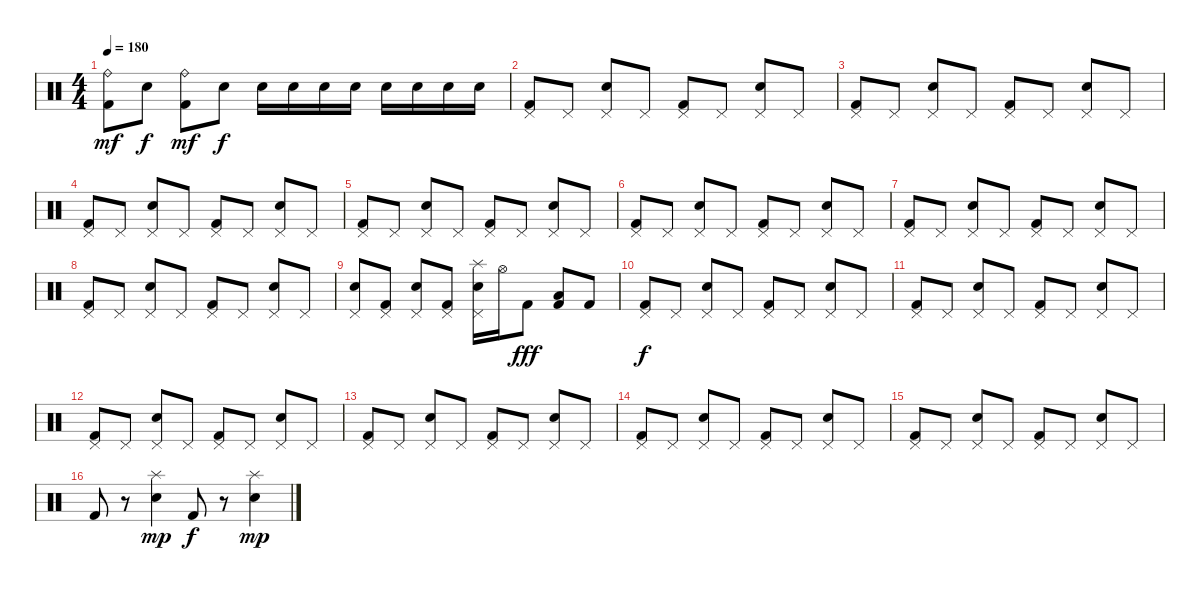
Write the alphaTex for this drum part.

\track "" {instrument percussion}
\staff {score}
\articulation defaults
\ts (4 4)
\tempo 180
\clef neutral
\ks c
("Ride (bell)" "Kick (hit) 2").8{dy mf} "Snare (hit) 2".8{dy f} ("Ride (bell)" "Kick (hit) 2").8{dy mf} "Snare (hit) 2".8{dy f} "Snare (hit) 2".16 "Snare (hit) 2".16 "Snare (hit) 2".16 "Snare (hit) 2".16 "Snare (hit) 2".16 "Snare (hit) 2".16 "Snare (hit) 2".16 "Snare (hit) 2".16 |
("Pedal Hi-Hat (hit)" "Kick (hit) 2").8 "Pedal Hi-Hat (hit)".8 ("Pedal Hi-Hat (hit)" "Snare (hit) 2").8 "Pedal Hi-Hat (hit)".8 ("Pedal Hi-Hat (hit)" "Kick (hit) 2").8 "Pedal Hi-Hat (hit)".8 ("Pedal Hi-Hat (hit)" "Snare (hit) 2").8 "Pedal Hi-Hat (hit)".8 |
("Pedal Hi-Hat (hit)" "Kick (hit) 2").8 "Pedal Hi-Hat (hit)".8 ("Pedal Hi-Hat (hit)" "Snare (hit) 2").8 "Pedal Hi-Hat (hit)".8 ("Pedal Hi-Hat (hit)" "Kick (hit) 2").8 "Pedal Hi-Hat (hit)".8 ("Pedal Hi-Hat (hit)" "Snare (hit) 2").8 "Pedal Hi-Hat (hit)".8 |
("Pedal Hi-Hat (hit)" "Kick (hit) 2").8 "Pedal Hi-Hat (hit)".8 ("Pedal Hi-Hat (hit)" "Snare (hit) 2").8 "Pedal Hi-Hat (hit)".8 ("Pedal Hi-Hat (hit)" "Kick (hit) 2").8 "Pedal Hi-Hat (hit)".8 ("Pedal Hi-Hat (hit)" "Snare (hit) 2").8 "Pedal Hi-Hat (hit)".8 |
("Pedal Hi-Hat (hit)" "Kick (hit) 2").8 "Pedal Hi-Hat (hit)".8 ("Pedal Hi-Hat (hit)" "Snare (hit) 2").8 "Pedal Hi-Hat (hit)".8 ("Pedal Hi-Hat (hit)" "Kick (hit) 2").8 "Pedal Hi-Hat (hit)".8 ("Pedal Hi-Hat (hit)" "Snare (hit) 2").8 "Pedal Hi-Hat (hit)".8 |
("Pedal Hi-Hat (hit)" "Kick (hit) 2").8 "Pedal Hi-Hat (hit)".8 ("Pedal Hi-Hat (hit)" "Snare (hit) 2").8 "Pedal Hi-Hat (hit)".8 ("Pedal Hi-Hat (hit)" "Kick (hit) 2").8 "Pedal Hi-Hat (hit)".8 ("Pedal Hi-Hat (hit)" "Snare (hit) 2").8 "Pedal Hi-Hat (hit)".8 |
("Pedal Hi-Hat (hit)" "Kick (hit) 2").8 "Pedal Hi-Hat (hit)".8 ("Pedal Hi-Hat (hit)" "Snare (hit) 2").8 "Pedal Hi-Hat (hit)".8 ("Pedal Hi-Hat (hit)" "Kick (hit) 2").8 "Pedal Hi-Hat (hit)".8 ("Pedal Hi-Hat (hit)" "Snare (hit) 2").8 "Pedal Hi-Hat (hit)".8 |
("Pedal Hi-Hat (hit)" "Kick (hit) 2").8 "Pedal Hi-Hat (hit)".8 ("Pedal Hi-Hat (hit)" "Snare (hit) 2").8 "Pedal Hi-Hat (hit)".8 ("Pedal Hi-Hat (hit)" "Kick (hit) 2").8 "Pedal Hi-Hat (hit)".8 ("Pedal Hi-Hat (hit)" "Snare (hit) 2").8 "Pedal Hi-Hat (hit)".8 |
("Pedal Hi-Hat (hit)" "Snare (hit) 2").8 ("Pedal Hi-Hat (hit)" "Kick (hit) 2").8 ("Pedal Hi-Hat (hit)" "Snare (hit) 2").8 ("Pedal Hi-Hat (hit)" "Kick (hit) 2").8 ("Splash (hit)" "Pedal Hi-Hat (hit)" "Snare (hit) 2").16 "Hi-Hat (open)".16 "Kick (hit) 2".8{dy fff} ("Kick (hit) 2" "Low Tom (hit)").8 "Kick (hit) 2".8 |
("Pedal Hi-Hat (hit)" "Kick (hit) 2").8{dy f} "Pedal Hi-Hat (hit)".8 ("Pedal Hi-Hat (hit)" "Snare (hit) 2").8 "Pedal Hi-Hat (hit)".8 ("Pedal Hi-Hat (hit)" "Kick (hit) 2").8 "Pedal Hi-Hat (hit)".8 ("Pedal Hi-Hat (hit)" "Snare (hit) 2").8 "Pedal Hi-Hat (hit)".8 |
("Pedal Hi-Hat (hit)" "Kick (hit) 2").8 "Pedal Hi-Hat (hit)".8 ("Pedal Hi-Hat (hit)" "Snare (hit) 2").8 "Pedal Hi-Hat (hit)".8 ("Pedal Hi-Hat (hit)" "Kick (hit) 2").8 "Pedal Hi-Hat (hit)".8 ("Pedal Hi-Hat (hit)" "Snare (hit) 2").8 "Pedal Hi-Hat (hit)".8 |
("Pedal Hi-Hat (hit)" "Kick (hit) 2").8 "Pedal Hi-Hat (hit)".8 ("Pedal Hi-Hat (hit)" "Snare (hit) 2").8 "Pedal Hi-Hat (hit)".8 ("Pedal Hi-Hat (hit)" "Kick (hit) 2").8 "Pedal Hi-Hat (hit)".8 ("Pedal Hi-Hat (hit)" "Snare (hit) 2").8 "Pedal Hi-Hat (hit)".8 |
("Pedal Hi-Hat (hit)" "Kick (hit) 2").8 "Pedal Hi-Hat (hit)".8 ("Pedal Hi-Hat (hit)" "Snare (hit) 2").8 "Pedal Hi-Hat (hit)".8 ("Pedal Hi-Hat (hit)" "Kick (hit) 2").8 "Pedal Hi-Hat (hit)".8 ("Pedal Hi-Hat (hit)" "Snare (hit) 2").8 "Pedal Hi-Hat (hit)".8 |
("Pedal Hi-Hat (hit)" "Kick (hit) 2").8 "Pedal Hi-Hat (hit)".8 ("Pedal Hi-Hat (hit)" "Snare (hit) 2").8 "Pedal Hi-Hat (hit)".8 ("Pedal Hi-Hat (hit)" "Kick (hit) 2").8 "Pedal Hi-Hat (hit)".8 ("Pedal Hi-Hat (hit)" "Snare (hit) 2").8 "Pedal Hi-Hat (hit)".8 |
("Pedal Hi-Hat (hit)" "Kick (hit) 2").8 "Pedal Hi-Hat (hit)".8 ("Pedal Hi-Hat (hit)" "Snare (hit) 2").8 "Pedal Hi-Hat (hit)".8 ("Pedal Hi-Hat (hit)" "Kick (hit) 2").8 "Pedal Hi-Hat (hit)".8 ("Pedal Hi-Hat (hit)" "Snare (hit) 2").8 "Pedal Hi-Hat (hit)".8 |
"Kick (hit) 2".8 r.8 ("Splash (hit)" "Snare (hit) 2").4{dy mp} "Kick (hit) 2".8{dy f} r.8 ("Splash (hit)" "Snare (hit) 2").4{dy mp}
